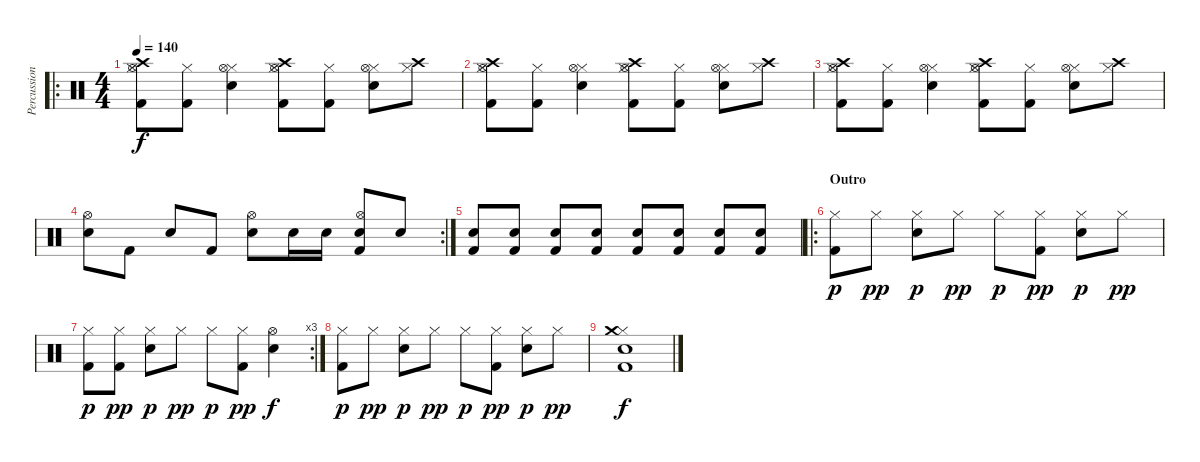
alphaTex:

\track ("Percussions" "Percussion") {instrument percussion}
\staff {score}
\articulation defaults
\ro
\ts (4 4)
\tempo 140
\clef neutral
\ks c
("Hi-Hat (closed)" "Kick (hit) 2" "Hi-Hat (open)" "Crash high (hit)").8{dy f} ("Hi-Hat (closed)" "Kick (hit) 2").8 ("Hi-Hat (closed)" "Electric Snare (hit)" "Hi-Hat (open)").4 ("Hi-Hat (closed)" "Kick (hit) 2" "Hi-Hat (open)" "Crash high (hit)").8 ("Hi-Hat (closed)" "Kick (hit) 2").8 ("Hi-Hat (closed)" "Electric Snare (hit)" "Hi-Hat (open)").8 ("Hi-Hat (closed)" "Crash high (hit)").8 |
("Hi-Hat (closed)" "Kick (hit) 2" "Hi-Hat (open)" "Crash high (hit)").8 ("Hi-Hat (closed)" "Kick (hit) 2").8 ("Hi-Hat (closed)" "Electric Snare (hit)" "Hi-Hat (open)").4 ("Hi-Hat (closed)" "Kick (hit) 2" "Hi-Hat (open)" "Crash high (hit)").8 ("Hi-Hat (closed)" "Kick (hit) 2").8 ("Hi-Hat (closed)" "Electric Snare (hit)" "Hi-Hat (open)").8 ("Hi-Hat (closed)" "Crash high (hit)").8 |
("Hi-Hat (closed)" "Kick (hit) 2" "Hi-Hat (open)" "Crash high (hit)").8 ("Hi-Hat (closed)" "Kick (hit) 2").8 ("Hi-Hat (closed)" "Electric Snare (hit)" "Hi-Hat (open)").4 ("Hi-Hat (closed)" "Kick (hit) 2" "Hi-Hat (open)" "Crash high (hit)").8 ("Hi-Hat (closed)" "Kick (hit) 2").8 ("Hi-Hat (closed)" "Electric Snare (hit)" "Hi-Hat (open)").8 ("Hi-Hat (closed)" "Crash high (hit)").8 |
\rc 2
("Electric Snare (hit)" "Hi-Hat (open)").8 "Kick (hit) 2".8 "Electric Snare (hit)".8 "Kick (hit) 2".8 ("Electric Snare (hit)" "Hi-Hat (open)").8 "Electric Snare (hit)".16 "Electric Snare (hit)".16 ("Electric Snare (hit)" "Kick (hit) 2" "Hi-Hat (open)").8 "Electric Snare (hit)".8 |
("Electric Snare (hit)" "Kick (hit) 2").8 ("Electric Snare (hit)" "Kick (hit) 2").8 ("Electric Snare (hit)" "Kick (hit) 2").8 ("Electric Snare (hit)" "Kick (hit) 2").8 ("Electric Snare (hit)" "Kick (hit) 2").8 ("Electric Snare (hit)" "Kick (hit) 2").8 ("Electric Snare (hit)" "Kick (hit) 2").8 ("Electric Snare (hit)" "Kick (hit) 2").8 |
\ro
\section ("" "Outro")
("Hi-Hat (closed)" "Kick (hit) 2").8{dy p} "Hi-Hat (closed)".8{dy pp} ("Hi-Hat (closed)" "Electric Snare (hit)").8{dy p} "Hi-Hat (closed)".8{dy pp} "Hi-Hat (closed)".8{dy p} ("Hi-Hat (closed)" "Kick (hit) 2").8{dy pp} ("Hi-Hat (closed)" "Electric Snare (hit)").8{dy p} "Hi-Hat (closed)".8{dy pp} |
\rc 3
("Hi-Hat (closed)" "Kick (hit) 2").8{dy p} ("Hi-Hat (closed)" "Kick (hit) 2").8{dy pp} ("Hi-Hat (closed)" "Electric Snare (hit)").8{dy p} "Hi-Hat (closed)".8{dy pp} "Hi-Hat (closed)".8{dy p} ("Hi-Hat (closed)" "Kick (hit) 2").8{dy pp} ("Hi-Hat (open)" "Electric Snare (hit)").4{dy f} |
("Hi-Hat (closed)" "Kick (hit) 2").8{dy p} "Hi-Hat (closed)".8{dy pp} ("Hi-Hat (closed)" "Electric Snare (hit)").8{dy p} "Hi-Hat (closed)".8{dy pp} "Hi-Hat (closed)".8{dy p} ("Hi-Hat (closed)" "Kick (hit) 2").8{dy pp} ("Hi-Hat (closed)" "Electric Snare (hit)").8{dy p} "Hi-Hat (closed)".8{dy pp} |
("Hi-Hat (closed)" "Crash medium (hit)" "Electric Snare (hit)" "Kick (hit) 2").1{dy f}
